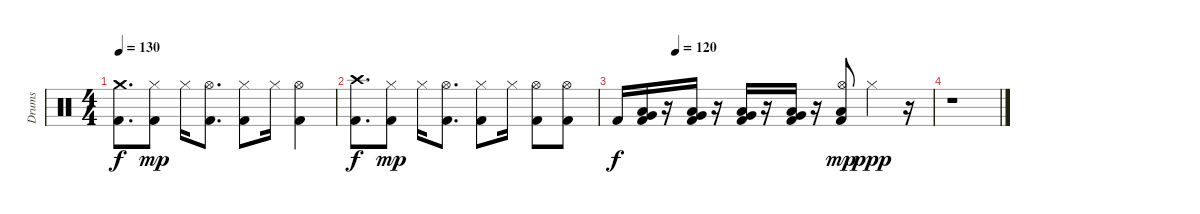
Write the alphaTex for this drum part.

\track ("Drums" "Drums") {instrument percussion}
\staff {score}
\articulation defaults
\ts (4 4)
\tempo 130
\clef neutral
\ks c
("Crash medium (hit)" "Kick (hit) 2").8{d dy f} ("Hi-Hat (closed)" "Kick (hit) 2").8{dy mp} "Hi-Hat (closed)".16 ("Hi-Hat (open)" "Kick (hit) 2").8{d} ("Hi-Hat (closed)" "Kick (hit) 2").8 "Hi-Hat (closed)".16 ("Hi-Hat (open)" "Kick (hit) 2").4 |
("Crash high (hit)" "Kick (hit) 2").8{d dy f} ("Hi-Hat (closed)" "Kick (hit) 2").8{dy mp} "Hi-Hat (closed)".16 ("Hi-Hat (open)" "Kick (hit) 2").8{d} ("Hi-Hat (closed)" "Kick (hit) 2").8 "Hi-Hat (closed)".16 ("Hi-Hat (open)" "Kick (hit) 2").8 ("Hi-Hat (open)" "Kick (hit) 2").8 |
\tempo (120 0.1875)
"Kick (hit) 2".16{dy f} ("Very Low Tom (hit)" "Low Floor Tom (hit)" "Kick (hit) 2").16 r.16 ("Very Low Tom (hit)" "Low Floor Tom (hit)" "Kick (hit) 2").16 r.16 ("Very Low Tom (hit)" "Low Floor Tom (hit)" "Kick (hit) 2").16 r.16 ("Very Low Tom (hit)" "Low Floor Tom (hit)" "Kick (hit) 2").16 r.16 ("Hi-Hat (open)" "Low Floor Tom (hit)" "Kick (hit) 2").8{dy mp} "Hi-Hat (closed)".4{dy ppp} r.16 |
r.1
